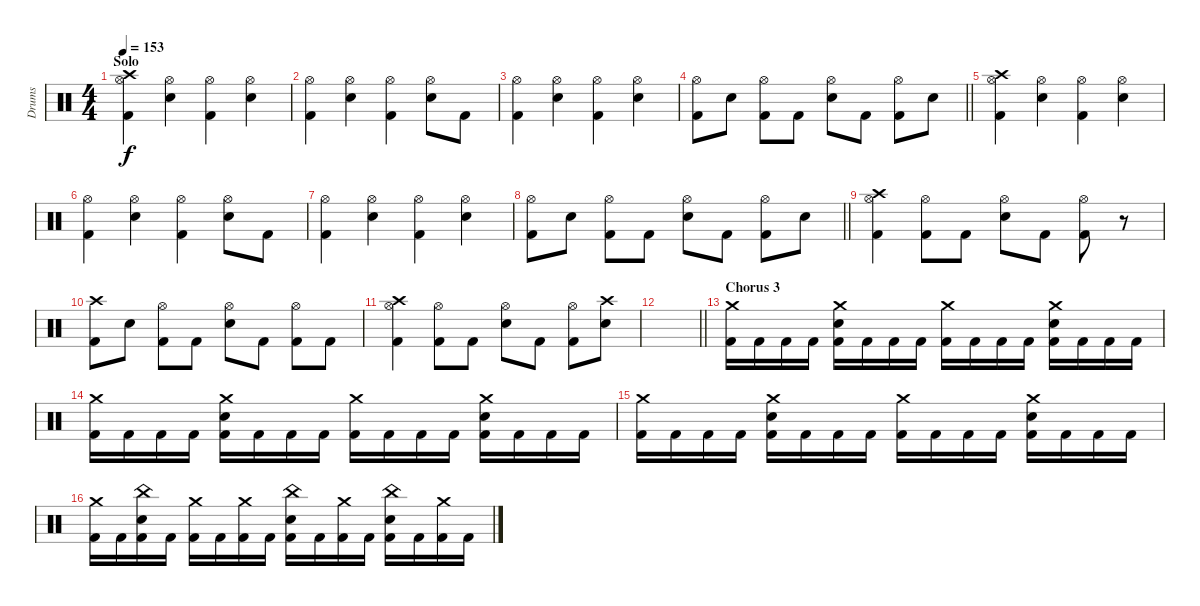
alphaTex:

\track ("Drums" "Drums") {instrument percussion}
\staff {score}
\articulation defaults
\ts (4 4)
\section ("" "Solo")
\tempo 153
\clef neutral
\ks c
("Crash high (hit)" "Hi-Hat (open)" "Kick (hit) 2").4{dy f} ("Hi-Hat (open)" "Electric Snare (hit)").4 ("Hi-Hat (open)" "Kick (hit) 2").4 ("Hi-Hat (open)" "Electric Snare (hit)").4 |
("Hi-Hat (open)" "Kick (hit) 2").4 ("Hi-Hat (open)" "Electric Snare (hit)").4 ("Hi-Hat (open)" "Kick (hit) 2").4 ("Hi-Hat (open)" "Electric Snare (hit)").8 "Kick (hit) 2".8 |
("Hi-Hat (open)" "Kick (hit) 2").4 ("Hi-Hat (open)" "Electric Snare (hit)").4 ("Hi-Hat (open)" "Kick (hit) 2").4 ("Hi-Hat (open)" "Electric Snare (hit)").4 |
\barLineRight lightlight
("Hi-Hat (open)" "Kick (hit) 2").8 "Electric Snare (hit)".8 ("Hi-Hat (open)" "Kick (hit) 2").8 "Kick (hit) 2".8 ("Hi-Hat (open)" "Electric Snare (hit)").8 "Kick (hit) 2".8 ("Hi-Hat (open)" "Kick (hit) 2").8 "Electric Snare (hit)".8 |
("Crash high (hit)" "Hi-Hat (open)" "Kick (hit) 2").4 ("Hi-Hat (open)" "Electric Snare (hit)").4 ("Hi-Hat (open)" "Kick (hit) 2").4 ("Hi-Hat (open)" "Electric Snare (hit)").4 |
("Hi-Hat (open)" "Kick (hit) 2").4 ("Hi-Hat (open)" "Electric Snare (hit)").4 ("Hi-Hat (open)" "Kick (hit) 2").4 ("Hi-Hat (open)" "Electric Snare (hit)").8 "Kick (hit) 2".8 |
("Hi-Hat (open)" "Kick (hit) 2").4 ("Hi-Hat (open)" "Electric Snare (hit)").4 ("Hi-Hat (open)" "Kick (hit) 2").4 ("Hi-Hat (open)" "Electric Snare (hit)").4 |
\barLineRight lightlight
("Hi-Hat (open)" "Kick (hit) 2").8 "Electric Snare (hit)".8 ("Hi-Hat (open)" "Kick (hit) 2").8 "Kick (hit) 2".8 ("Hi-Hat (open)" "Electric Snare (hit)").8 "Kick (hit) 2".8 ("Hi-Hat (open)" "Kick (hit) 2").8 "Electric Snare (hit)".8 |
("Crash high (hit)" "Hi-Hat (open)" "Kick (hit) 2").4 ("Hi-Hat (open)" "Kick (hit) 2").8 "Kick (hit) 2".8 ("Hi-Hat (open)" "Electric Snare (hit)").8 "Kick (hit) 2".8 ("Hi-Hat (open)" "Kick (hit) 2").8 r.8 |
("Crash high (hit)" "Kick (hit) 2").8 "Electric Snare (hit)".8 ("Hi-Hat (open)" "Kick (hit) 2").8 "Kick (hit) 2".8 ("Hi-Hat (open)" "Electric Snare (hit)").8 "Kick (hit) 2".8 ("Hi-Hat (open)" "Kick (hit) 2").8 "Kick (hit) 2".8 |
("Crash high (hit)" "Hi-Hat (open)" "Kick (hit) 2").4 ("Hi-Hat (open)" "Kick (hit) 2").8 "Kick (hit) 2".8 ("Hi-Hat (open)" "Electric Snare (hit)").8 "Kick (hit) 2".8 ("Hi-Hat (open)" "Kick (hit) 2").8 ("Crash high (hit)" "Electric Snare (hit)").8 |
\barLineRight lightlight
|
\section ("" "Chorus 3")
("Crash medium (hit)" "Kick (hit) 2").16 "Kick (hit) 2".16 "Kick (hit) 2".16 "Kick (hit) 2".16 ("Crash medium (hit)" "Electric Snare (hit)" "Kick (hit) 2").16 "Kick (hit) 2".16 "Kick (hit) 2".16 "Kick (hit) 2".16 ("Crash medium (hit)" "Kick (hit) 2").16 "Kick (hit) 2".16 "Kick (hit) 2".16 "Kick (hit) 2".16 ("Crash medium (hit)" "Electric Snare (hit)" "Kick (hit) 2").16 "Kick (hit) 2".16 "Kick (hit) 2".16 "Kick (hit) 2".16 |
("Crash medium (hit)" "Kick (hit) 2").16 "Kick (hit) 2".16 "Kick (hit) 2".16 "Kick (hit) 2".16 ("Crash medium (hit)" "Electric Snare (hit)" "Kick (hit) 2").16 "Kick (hit) 2".16 "Kick (hit) 2".16 "Kick (hit) 2".16 ("Crash medium (hit)" "Kick (hit) 2").16 "Kick (hit) 2".16 "Kick (hit) 2".16 "Kick (hit) 2".16 ("Crash medium (hit)" "Electric Snare (hit)" "Kick (hit) 2").16 "Kick (hit) 2".16 "Kick (hit) 2".16 "Kick (hit) 2".16 |
("Crash medium (hit)" "Kick (hit) 2").16 "Kick (hit) 2".16 "Kick (hit) 2".16 "Kick (hit) 2".16 ("Crash medium (hit)" "Electric Snare (hit)" "Kick (hit) 2").16 "Kick (hit) 2".16 "Kick (hit) 2".16 "Kick (hit) 2".16 ("Crash medium (hit)" "Kick (hit) 2").16 "Kick (hit) 2".16 "Kick (hit) 2".16 "Kick (hit) 2".16 ("Crash medium (hit)" "Electric Snare (hit)" "Kick (hit) 2").16 "Kick (hit) 2".16 "Kick (hit) 2".16 "Kick (hit) 2".16 |
("Crash medium (hit)" "Kick (hit) 2").16 "Kick (hit) 2".16 ("China (hit)" "Electric Snare (hit)" "Kick (hit) 2").16 "Kick (hit) 2".16 ("Crash medium (hit)" "Kick (hit) 2").16 "Kick (hit) 2".16 ("Crash medium (hit)" "Kick (hit) 2").16 "Kick (hit) 2".16 ("China (hit)" "Electric Snare (hit)" "Kick (hit) 2").16 "Kick (hit) 2".16 ("Crash medium (hit)" "Kick (hit) 2").16 "Kick (hit) 2".16 ("China (hit)" "Electric Snare (hit)" "Kick (hit) 2").16 "Kick (hit) 2".16 ("Crash medium (hit)" "Kick (hit) 2").16 "Kick (hit) 2".16
